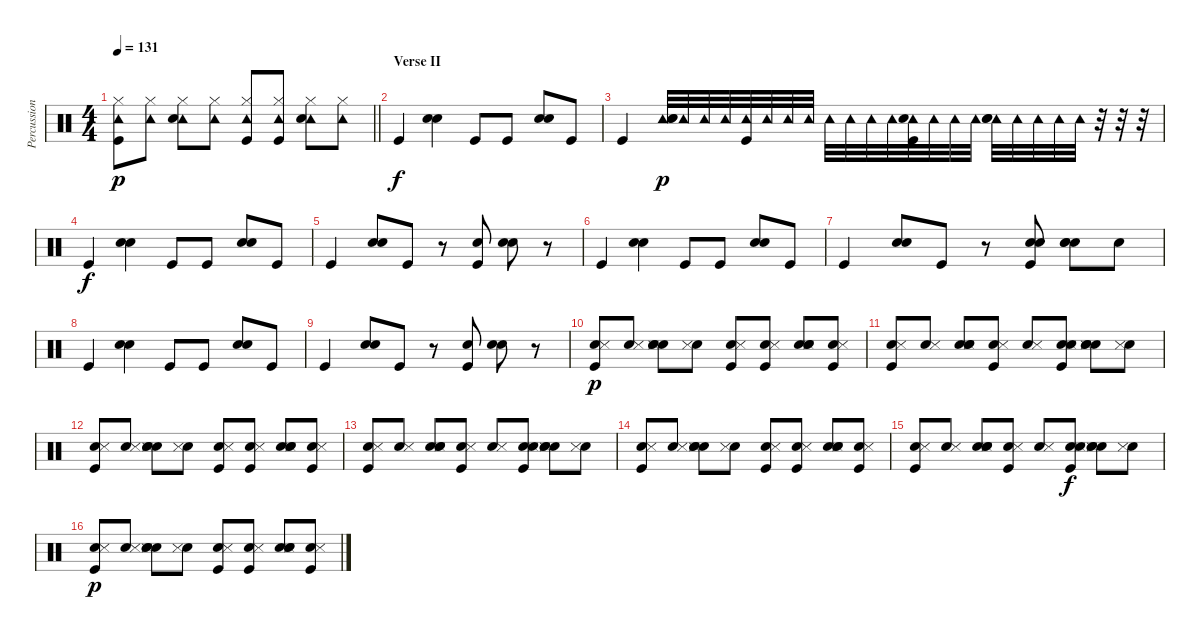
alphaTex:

\track ("Percussion" "Percussion") {instrument percussion}
\staff {score}
\articulation defaults
\ts (4 4)
\tempo 131
\clef neutral
\barLineRight lightlight
\ks c
("Tambourine (hit)" "Hi-Hat (closed)" "Kick (hit)").8{dy p} ("Tambourine (hit)" "Hi-Hat (closed)").8 ("Tambourine (hit)" "Hi-Hat (closed)" "Snare (hit) 2").8 ("Tambourine (hit)" "Hi-Hat (closed)").8 ("Tambourine (hit)" "Hi-Hat (closed)" "Kick (hit)").8 ("Tambourine (hit)" "Hi-Hat (closed)" "Kick (hit)").8 ("Tambourine (hit)" "Hi-Hat (closed)" "Snare (hit) 2").8 ("Tambourine (hit)" "Hi-Hat (closed)").8 |
\section ("" "Verse II")
"Kick (hit)".4{dy f} ("Snare (hit) 2" "Snare (hit) 2").4 "Kick (hit)".8 "Kick (hit)".8 ("Snare (hit) 2" "Snare (hit) 2").8 "Kick (hit)".8 |
"Kick (hit)".4 ("Tambourine (hit)" "Snare (hit) 2" "Snare (hit) 2").32{dy p} "Tambourine (hit)".32 "Tambourine (hit)".32 "Tambourine (hit)".32 ("Tambourine (hit)" "Kick (hit)").32 "Tambourine (hit)".32 "Tambourine (hit)".32 "Tambourine (hit)".32 "Tambourine (hit)".32 "Tambourine (hit)".32 "Tambourine (hit)".32 "Tambourine (hit)".32 ("Tambourine (hit)" "Snare (hit) 2" "Kick (hit)").32 "Tambourine (hit)".32 "Tambourine (hit)".32 "Tambourine (hit)".32 ("Tambourine (hit)" "Snare (hit) 2" "Snare (hit) 2").32 "Tambourine (hit)".32 "Tambourine (hit)".32 "Tambourine (hit)".32 "Tambourine (hit)".32 r.32 r.32 r.32 |
"Kick (hit)".4{dy f} ("Snare (hit) 2" "Snare (hit) 2").4 "Kick (hit)".8 "Kick (hit)".8 ("Snare (hit) 2" "Snare (hit) 2").8 "Kick (hit)".8 |
"Kick (hit)".4 ("Snare (hit) 2" "Snare (hit) 2").8 "Kick (hit)".8 r.8 ("Snare (hit) 2" "Kick (hit)").8 ("Snare (hit) 2" "Snare (hit) 2").8 r.8 |
"Kick (hit)".4 ("Snare (hit) 2" "Snare (hit) 2").4 "Kick (hit)".8 "Kick (hit)".8 ("Snare (hit) 2" "Snare (hit) 2").8 "Kick (hit)".8 |
"Kick (hit)".4 ("Snare (hit) 2" "Snare (hit) 2").8 "Kick (hit)".8 r.8 ("Hand Clap (hit)" "Snare (hit) 2" "Kick (hit)").8 ("Hand Clap (hit)" "Snare (hit) 2" "Snare (hit) 2").8 "Hand Clap (hit)".8 |
"Kick (hit)".4 ("Snare (hit) 2" "Snare (hit) 2").4 "Kick (hit)".8 "Kick (hit)".8 ("Snare (hit) 2" "Snare (hit) 2").8 "Kick (hit)".8 |
"Kick (hit)".4 ("Snare (hit) 2" "Snare (hit) 2").8 "Kick (hit)".8 r.8 ("Snare (hit) 2" "Kick (hit)").8 ("Snare (hit) 2" "Snare (hit) 2").8 r.8 |
("Hand Clap (hit)" "Snare (side stick) 3" "Kick (hit)").8{dy p} ("Hand Clap (hit)" "Snare (side stick) 3").8 ("Hand Clap (hit)" "Snare (side stick) 3" "Snare (hit) 2" "Snare (hit) 2").8 ("Hand Clap (hit)" "Snare (side stick) 3").8 ("Hand Clap (hit)" "Snare (side stick) 3" "Kick (hit)").8 ("Hand Clap (hit)" "Snare (side stick) 3" "Kick (hit)").8 ("Hand Clap (hit)" "Snare (side stick) 3" "Snare (hit) 2" "Snare (hit) 2").8 ("Hand Clap (hit)" "Snare (side stick) 3" "Kick (hit)").8 |
("Hand Clap (hit)" "Snare (side stick) 3" "Kick (hit)").8 ("Hand Clap (hit)" "Snare (side stick) 3").8 ("Hand Clap (hit)" "Snare (side stick) 3" "Snare (hit) 2" "Snare (hit) 2").8 ("Hand Clap (hit)" "Snare (side stick) 3" "Kick (hit)").8 ("Hand Clap (hit)" "Snare (side stick) 3").8 ("Hand Clap (hit)" "Snare (side stick) 3" "Snare (hit) 2" "Kick (hit)").8 ("Hand Clap (hit)" "Snare (side stick) 3" "Snare (hit) 2" "Snare (hit) 2").8 ("Hand Clap (hit)" "Snare (side stick) 3").8 |
("Hand Clap (hit)" "Snare (side stick) 3" "Kick (hit)").8 ("Hand Clap (hit)" "Snare (side stick) 3").8 ("Hand Clap (hit)" "Snare (side stick) 3" "Snare (hit) 2" "Snare (hit) 2").8 ("Hand Clap (hit)" "Snare (side stick) 3").8 ("Hand Clap (hit)" "Snare (side stick) 3" "Kick (hit)").8 ("Hand Clap (hit)" "Snare (side stick) 3" "Kick (hit)").8 ("Hand Clap (hit)" "Snare (side stick) 3" "Snare (hit) 2" "Snare (hit) 2").8 ("Hand Clap (hit)" "Snare (side stick) 3" "Kick (hit)").8 |
("Hand Clap (hit)" "Snare (side stick) 3" "Kick (hit)").8 ("Hand Clap (hit)" "Snare (side stick) 3").8 ("Hand Clap (hit)" "Snare (side stick) 3" "Snare (hit) 2" "Snare (hit) 2").8 ("Hand Clap (hit)" "Snare (side stick) 3" "Kick (hit)").8 ("Hand Clap (hit)" "Snare (side stick) 3").8 ("Hand Clap (hit)" "Snare (side stick) 3" "Snare (hit) 2" "Kick (hit)").8 ("Hand Clap (hit)" "Snare (side stick) 3" "Snare (hit) 2" "Snare (hit) 2").8 ("Hand Clap (hit)" "Snare (side stick) 3").8 |
("Hand Clap (hit)" "Snare (side stick) 3" "Kick (hit)").8 ("Hand Clap (hit)" "Snare (side stick) 3").8 ("Hand Clap (hit)" "Snare (side stick) 3" "Snare (hit) 2" "Snare (hit) 2").8 ("Hand Clap (hit)" "Snare (side stick) 3").8 ("Hand Clap (hit)" "Snare (side stick) 3" "Kick (hit)").8 ("Hand Clap (hit)" "Snare (side stick) 3" "Kick (hit)").8 ("Hand Clap (hit)" "Snare (side stick) 3" "Snare (hit) 2" "Snare (hit) 2").8 ("Hand Clap (hit)" "Snare (side stick) 3" "Kick (hit)").8 |
("Hand Clap (hit)" "Snare (side stick) 3" "Kick (hit)").8 ("Hand Clap (hit)" "Snare (side stick) 3").8 ("Hand Clap (hit)" "Snare (side stick) 3" "Snare (hit) 2" "Snare (hit) 2").8 ("Hand Clap (hit)" "Snare (side stick) 3" "Kick (hit)").8 ("Hand Clap (hit)" "Snare (side stick) 3").8 ("Hand Clap (hit)" "Snare (side stick) 3" "Snare (hit) 2" "Kick (hit)").8{dy f} ("Hand Clap (hit)" "Snare (side stick) 3" "Snare (hit) 2" "Snare (hit) 2").8 ("Hand Clap (hit)" "Snare (side stick) 3").8 |
("Hand Clap (hit)" "Snare (side stick) 3" "Kick (hit)").8{dy p} ("Hand Clap (hit)" "Snare (side stick) 3").8 ("Hand Clap (hit)" "Snare (side stick) 3" "Snare (hit) 2" "Snare (hit) 2").8 ("Hand Clap (hit)" "Snare (side stick) 3").8 ("Hand Clap (hit)" "Snare (side stick) 3" "Kick (hit)").8 ("Hand Clap (hit)" "Snare (side stick) 3" "Kick (hit)").8 ("Hand Clap (hit)" "Snare (side stick) 3" "Snare (hit) 2" "Snare (hit) 2").8 ("Hand Clap (hit)" "Snare (side stick) 3" "Kick (hit)").8
